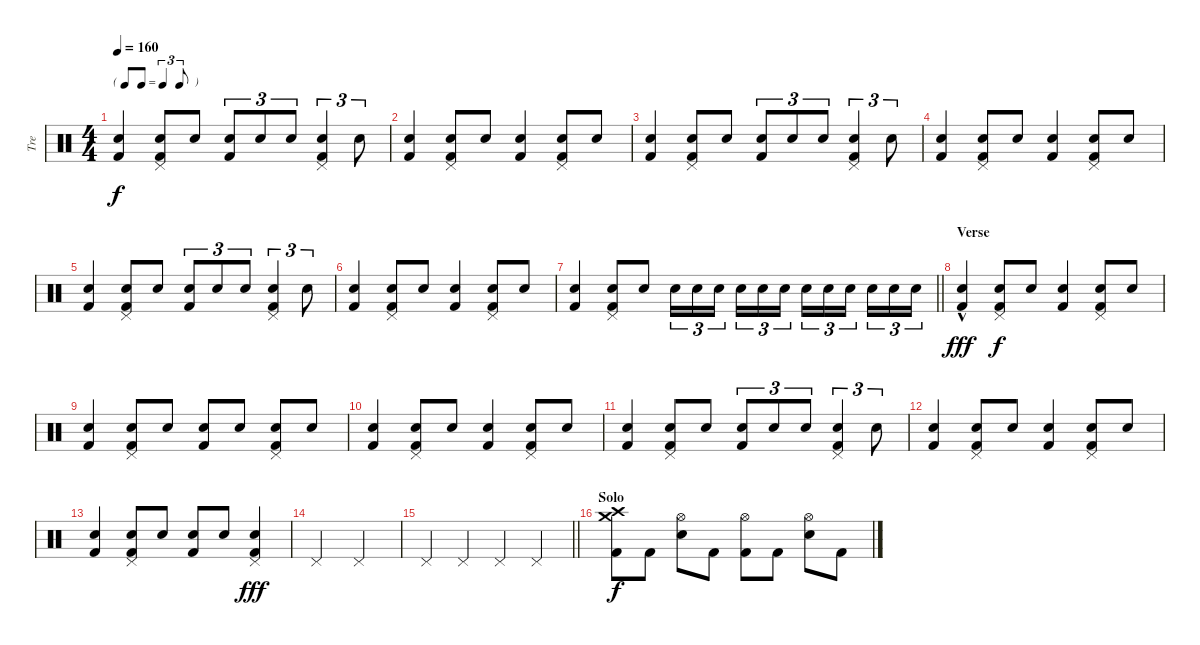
\track ("Tre" "Tre") {instrument percussion}
\staff {score}
\articulation defaults
\ts (4 4)
\tf triplet8th
\tempo 160
\clef neutral
\ks c
("Snare (hit) 2" "Kick (hit) 2").4{dy f} ("Pedal Hi-Hat (hit)" "Snare (hit) 2" "Kick (hit) 2").8 "Snare (hit) 2".8 ("Snare (hit) 2" "Kick (hit) 2").8{tu (3 2)} "Snare (hit) 2".8{tu (3 2)} "Snare (hit) 2".8{tu (3 2)} ("Pedal Hi-Hat (hit)" "Snare (hit) 2" "Kick (hit) 2").4{tu (3 2)} "Snare (hit) 2".8{tu (3 2)} |
("Snare (hit) 2" "Kick (hit) 2").4 ("Pedal Hi-Hat (hit)" "Snare (hit) 2" "Kick (hit) 2").8 "Snare (hit) 2".8 ("Snare (hit) 2" "Kick (hit) 2").4 ("Pedal Hi-Hat (hit)" "Snare (hit) 2" "Kick (hit) 2").8 "Snare (hit) 2".8 |
("Snare (hit) 2" "Kick (hit) 2").4 ("Pedal Hi-Hat (hit)" "Snare (hit) 2" "Kick (hit) 2").8 "Snare (hit) 2".8 ("Snare (hit) 2" "Kick (hit) 2").8{tu (3 2)} "Snare (hit) 2".8{tu (3 2)} "Snare (hit) 2".8{tu (3 2)} ("Pedal Hi-Hat (hit)" "Snare (hit) 2" "Kick (hit) 2").4{tu (3 2)} "Snare (hit) 2".8{tu (3 2)} |
("Snare (hit) 2" "Kick (hit) 2").4 ("Pedal Hi-Hat (hit)" "Snare (hit) 2" "Kick (hit) 2").8 "Snare (hit) 2".8 ("Snare (hit) 2" "Kick (hit) 2").4 ("Pedal Hi-Hat (hit)" "Snare (hit) 2" "Kick (hit) 2").8 "Snare (hit) 2".8 |
("Snare (hit) 2" "Kick (hit) 2").4 ("Pedal Hi-Hat (hit)" "Snare (hit) 2" "Kick (hit) 2").8 "Snare (hit) 2".8 ("Snare (hit) 2" "Kick (hit) 2").8{tu (3 2)} "Snare (hit) 2".8{tu (3 2)} "Snare (hit) 2".8{tu (3 2)} ("Pedal Hi-Hat (hit)" "Snare (hit) 2" "Kick (hit) 2").4{tu (3 2)} "Snare (hit) 2".8{tu (3 2)} |
("Snare (hit) 2" "Kick (hit) 2").4 ("Pedal Hi-Hat (hit)" "Snare (hit) 2" "Kick (hit) 2").8 "Snare (hit) 2".8 ("Snare (hit) 2" "Kick (hit) 2").4 ("Pedal Hi-Hat (hit)" "Snare (hit) 2" "Kick (hit) 2").8 "Snare (hit) 2".8 |
\barLineRight lightlight
("Snare (hit) 2" "Kick (hit) 2").4 ("Pedal Hi-Hat (hit)" "Snare (hit) 2" "Kick (hit) 2").8 "Snare (hit) 2".8 "Snare (hit) 2".16{tu (3 2)} "Snare (hit) 2".16{tu (3 2)} "Snare (hit) 2".16{tu (3 2) beam splitsecondary} "Snare (hit) 2".16{tu (3 2)} "Snare (hit) 2".16{tu (3 2)} "Snare (hit) 2".16{tu (3 2)} "Snare (hit) 2".16{tu (3 2)} "Snare (hit) 2".16{tu (3 2)} "Snare (hit) 2".16{tu (3 2) beam splitsecondary} "Snare (hit) 2".16{tu (3 2)} "Snare (hit) 2".16{tu (3 2)} "Snare (hit) 2".16{tu (3 2)} |
\section ("" "Verse")
("Snare (hit) 2"{hac} "Kick (hit) 2"{hac}).4{dy fff} ("Pedal Hi-Hat (hit)" "Snare (hit) 2" "Kick (hit) 2").8{dy f} "Snare (hit) 2".8 ("Snare (hit) 2" "Kick (hit) 2").4 ("Pedal Hi-Hat (hit)" "Snare (hit) 2" "Kick (hit) 2").8 "Snare (hit) 2".8 |
("Snare (hit) 2" "Kick (hit) 2").4 ("Pedal Hi-Hat (hit)" "Snare (hit) 2" "Kick (hit) 2").8 "Snare (hit) 2".8 ("Snare (hit) 2" "Kick (hit) 2").8 "Snare (hit) 2".8 ("Pedal Hi-Hat (hit)" "Snare (hit) 2" "Kick (hit) 2").8 "Snare (hit) 2".8 |
("Snare (hit) 2" "Kick (hit) 2").4 ("Pedal Hi-Hat (hit)" "Snare (hit) 2" "Kick (hit) 2").8 "Snare (hit) 2".8 ("Snare (hit) 2" "Kick (hit) 2").4 ("Pedal Hi-Hat (hit)" "Snare (hit) 2" "Kick (hit) 2").8 "Snare (hit) 2".8 |
("Snare (hit) 2" "Kick (hit) 2").4 ("Pedal Hi-Hat (hit)" "Snare (hit) 2" "Kick (hit) 2").8 "Snare (hit) 2".8 ("Snare (hit) 2" "Kick (hit) 2").8{tu (3 2)} "Snare (hit) 2".8{tu (3 2)} "Snare (hit) 2".8{tu (3 2)} ("Pedal Hi-Hat (hit)" "Snare (hit) 2" "Kick (hit) 2").4{tu (3 2)} "Snare (hit) 2".8{tu (3 2)} |
("Snare (hit) 2" "Kick (hit) 2").4 ("Pedal Hi-Hat (hit)" "Snare (hit) 2" "Kick (hit) 2").8 "Snare (hit) 2".8 ("Snare (hit) 2" "Kick (hit) 2").4 ("Pedal Hi-Hat (hit)" "Snare (hit) 2" "Kick (hit) 2").8 "Snare (hit) 2".8 |
("Snare (hit) 2" "Kick (hit) 2").4 ("Pedal Hi-Hat (hit)" "Snare (hit) 2" "Kick (hit) 2").8 "Snare (hit) 2".8 ("Snare (hit) 2" "Kick (hit) 2").8 "Snare (hit) 2".8 ("Pedal Hi-Hat (hit)" "Snare (hit) 2" "Kick (hit) 2").4{dy fff} |
"Pedal Hi-Hat (hit)".2 "Pedal Hi-Hat (hit)".2 |
\barLineRight lightlight "Pedal Hi-Hat (hit)".4 "Pedal Hi-Hat (hit)".4 "Pedal Hi-Hat (hit)".4 "Pedal Hi-Hat (hit)".4
|
\section ("" "Solo")
("Crash medium (hit)" "Crash high (hit)" "Kick (hit) 2").8{dy f} "Kick (hit) 2".8 ("Hi-Hat (open)" "Snare (hit) 2").8 "Kick (hit) 2".8 ("Hi-Hat (open)" "Kick (hit) 2").8 "Kick (hit) 2".8 ("Hi-Hat (open)" "Snare (hit) 2").8 "Kick (hit) 2".8
